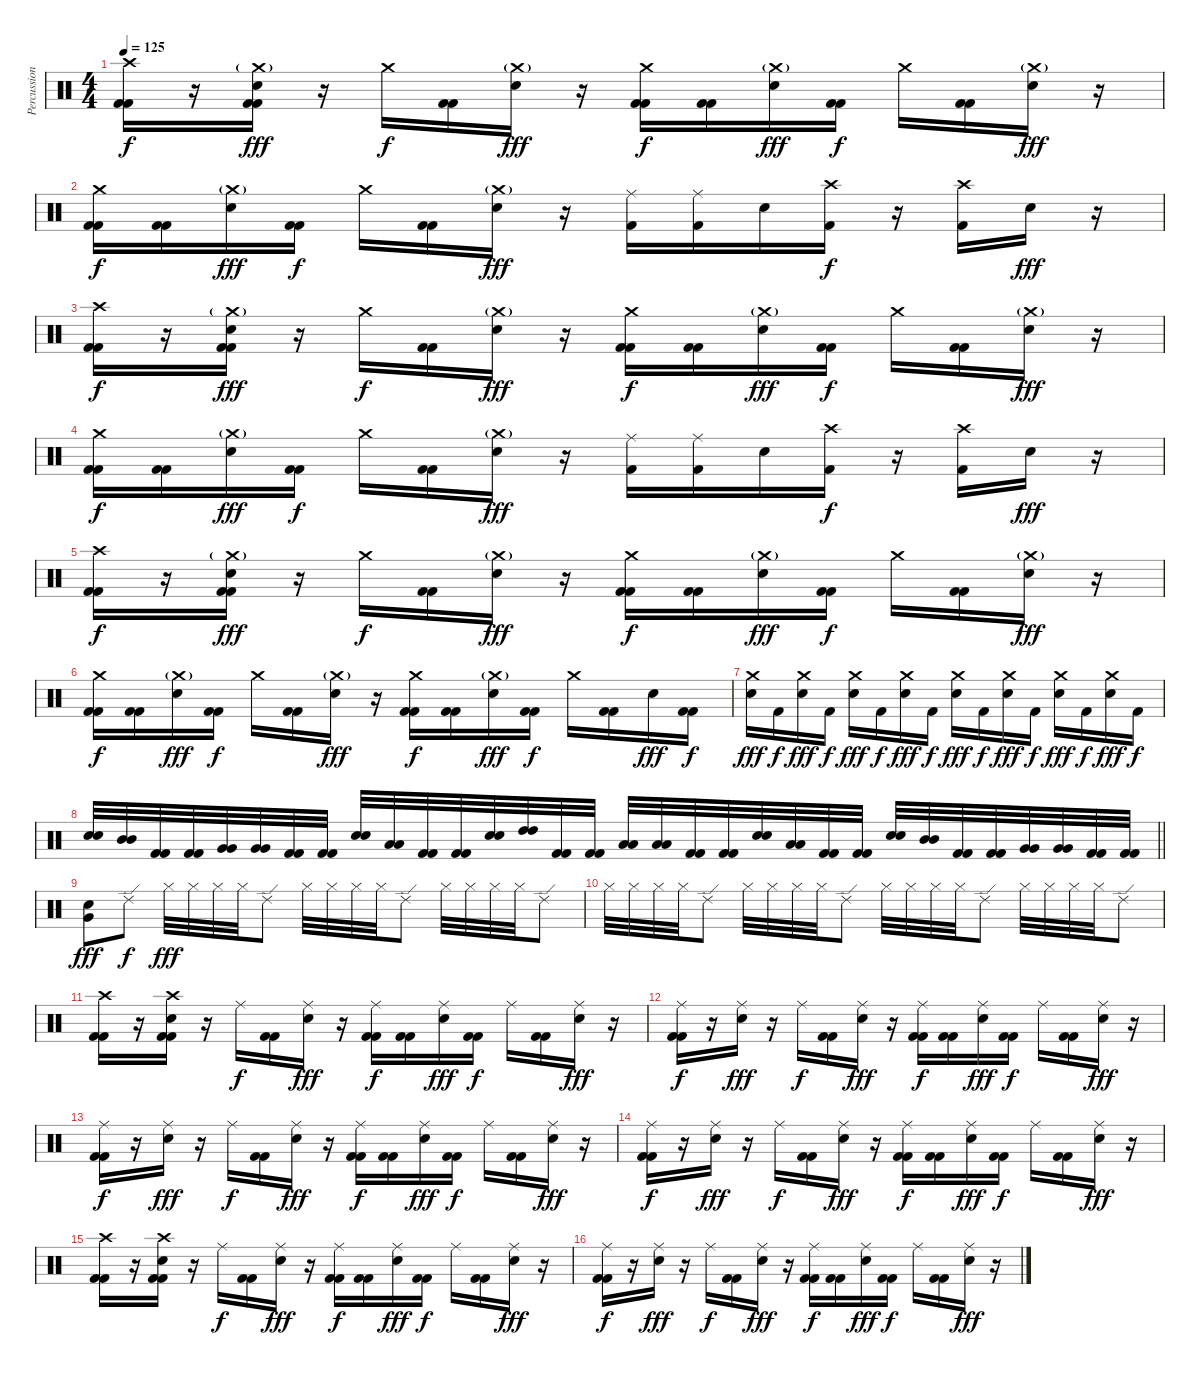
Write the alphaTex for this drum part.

\track ("Percussion" "Percussion") {solo instrument percussion}
\staff {score}
\articulation defaults
\ts (4 4)
\tempo 125
\clef neutral
\ks c
("Crash high (hit)" "Kick (hit) 2" "Kick (hit) 2").16{dy f} r.16 ("Crash medium (hit)"{g} "Electric Snare (hit)" "Kick (hit) 2" "Kick (hit) 2").16{dy fff} r.16 "Crash medium (hit)".16{dy f} ("Kick (hit) 2" "Kick (hit) 2").16 ("Crash medium (hit)"{g} "Electric Snare (hit)").16{dy fff} r.16 ("Crash medium (hit)" "Kick (hit) 2" "Kick (hit) 2").16{dy f} ("Kick (hit) 2" "Kick (hit) 2").16 ("Crash medium (hit)"{g} "Electric Snare (hit)").16{dy fff} ("Kick (hit) 2" "Kick (hit) 2").16{dy f} "Crash medium (hit)".16 ("Kick (hit) 2" "Kick (hit) 2").16 ("Crash medium (hit)"{g} "Electric Snare (hit)").16{dy fff} r.16 |
("Crash medium (hit)" "Kick (hit) 2" "Kick (hit) 2").16{dy f} ("Kick (hit) 2" "Kick (hit) 2").16 ("Crash medium (hit)"{g} "Electric Snare (hit)").16{dy fff} ("Kick (hit) 2" "Kick (hit) 2").16{dy f} "Crash medium (hit)".16 ("Kick (hit) 2" "Kick (hit) 2").16 ("Crash medium (hit)"{g} "Electric Snare (hit)").16{dy fff} r.16 ("Ride (middle)" "Kick (hit) 2").16 ("Ride (middle)" "Kick (hit) 2").16 "Electric Snare (hit)".16 ("Crash high (hit)" "Kick (hit) 2").16{dy f} r.16 ("Crash high (hit)" "Kick (hit) 2").16 "Electric Snare (hit)".16{dy fff} r.16 |
("Crash high (hit)" "Kick (hit) 2" "Kick (hit) 2").16{dy f} r.16 ("Crash medium (hit)"{g} "Electric Snare (hit)" "Kick (hit) 2" "Kick (hit) 2").16{dy fff} r.16 "Crash medium (hit)".16{dy f} ("Kick (hit) 2" "Kick (hit) 2").16 ("Crash medium (hit)"{g} "Electric Snare (hit)").16{dy fff} r.16 ("Crash medium (hit)" "Kick (hit) 2" "Kick (hit) 2").16{dy f} ("Kick (hit) 2" "Kick (hit) 2").16 ("Crash medium (hit)"{g} "Electric Snare (hit)").16{dy fff} ("Kick (hit) 2" "Kick (hit) 2").16{dy f} "Crash medium (hit)".16 ("Kick (hit) 2" "Kick (hit) 2").16 ("Crash medium (hit)"{g} "Electric Snare (hit)").16{dy fff} r.16 |
("Crash medium (hit)" "Kick (hit) 2" "Kick (hit) 2").16{dy f} ("Kick (hit) 2" "Kick (hit) 2").16 ("Crash medium (hit)"{g} "Electric Snare (hit)").16{dy fff} ("Kick (hit) 2" "Kick (hit) 2").16{dy f} "Crash medium (hit)".16 ("Kick (hit) 2" "Kick (hit) 2").16 ("Crash medium (hit)"{g} "Electric Snare (hit)").16{dy fff} r.16 ("Ride (middle)" "Kick (hit) 2").16 ("Ride (middle)" "Kick (hit) 2").16 "Electric Snare (hit)".16 ("Crash high (hit)" "Kick (hit) 2").16{dy f} r.16 ("Crash high (hit)" "Kick (hit) 2").16 "Electric Snare (hit)".16{dy fff} r.16 |
("Crash high (hit)" "Kick (hit) 2" "Kick (hit) 2").16{dy f} r.16 ("Crash medium (hit)"{g} "Electric Snare (hit)" "Kick (hit) 2" "Kick (hit) 2").16{dy fff} r.16 "Crash medium (hit)".16{dy f} ("Kick (hit) 2" "Kick (hit) 2").16 ("Crash medium (hit)"{g} "Electric Snare (hit)").16{dy fff} r.16 ("Crash medium (hit)" "Kick (hit) 2" "Kick (hit) 2").16{dy f} ("Kick (hit) 2" "Kick (hit) 2").16 ("Crash medium (hit)"{g} "Electric Snare (hit)").16{dy fff} ("Kick (hit) 2" "Kick (hit) 2").16{dy f} "Crash medium (hit)".16 ("Kick (hit) 2" "Kick (hit) 2").16 ("Crash medium (hit)"{g} "Electric Snare (hit)").16{dy fff} r.16 |
("Crash medium (hit)" "Kick (hit) 2" "Kick (hit) 2").16{dy f} ("Kick (hit) 2" "Kick (hit) 2").16 ("Crash medium (hit)"{g} "Electric Snare (hit)").16{dy fff} ("Kick (hit) 2" "Kick (hit) 2").16{dy f} "Crash medium (hit)".16 ("Kick (hit) 2" "Kick (hit) 2").16 ("Crash medium (hit)"{g} "Electric Snare (hit)").16{dy fff} r.16 ("Crash medium (hit)" "Kick (hit) 2" "Kick (hit) 2").16{dy f} ("Kick (hit) 2" "Kick (hit) 2").16 ("Crash medium (hit)"{g} "Electric Snare (hit)").16{dy fff} ("Kick (hit) 2" "Kick (hit) 2").16{dy f} "Crash medium (hit)".16 ("Kick (hit) 2" "Kick (hit) 2").16 "Electric Snare (hit)".16{dy fff} ("Kick (hit) 2" "Kick (hit) 2").16{dy f} |
("Crash medium (hit)" "Electric Snare (hit)").16{dy fff} "Kick (hit) 2".16{dy f} ("Crash medium (hit)" "Electric Snare (hit)").16{dy fff} "Kick (hit) 2".16{dy f} ("Crash medium (hit)" "Electric Snare (hit)").16{dy fff} "Kick (hit) 2".16{dy f} ("Crash medium (hit)" "Electric Snare (hit)").16{dy fff} "Kick (hit) 2".16{dy f} ("Crash medium (hit)" "Electric Snare (hit)").16{dy fff} "Kick (hit) 2".16{dy f} ("Crash medium (hit)" "Electric Snare (hit)").16{dy fff} "Kick (hit) 2".16{dy f} ("Crash medium (hit)" "Electric Snare (hit)").16{dy fff} "Kick (hit) 2".16{dy f} ("Crash medium (hit)" "Electric Snare (hit)").16{dy fff} "Kick (hit) 2".16{dy f} |
\barLineRight lightlight
("Electric Snare (hit)" "Electric Snare (hit)").32 ("Mid Tom (hit)" "Mid Tom (hit)").32 ("Kick (hit) 2" "Kick (hit) 2").32 ("Kick (hit) 2" "Kick (hit) 2").32 ("Very Low Tom (hit)" "Very Low Tom (hit)").32 ("Very Low Tom (hit)" "Very Low Tom (hit)").32 ("Kick (hit) 2" "Kick (hit) 2").32 ("Kick (hit) 2" "Kick (hit) 2").32 ("Electric Snare (hit)" "Electric Snare (hit)").32 ("Low Tom (hit)" "Low Tom (hit)").32 ("Kick (hit) 2" "Kick (hit) 2").32 ("Kick (hit) 2" "Kick (hit) 2").32 ("Electric Snare (hit)" "Electric Snare (hit)").32 ("High Tom (hit)" "High Tom (hit)").32 ("Kick (hit) 2" "Kick (hit) 2").32 ("Kick (hit) 2" "Kick (hit) 2").32 ("Low Floor Tom (hit)" "Low Floor Tom (hit)").32 ("Low Floor Tom (hit)" "Low Floor Tom (hit)").32 ("Kick (hit) 2" "Kick (hit) 2").32 ("Kick (hit) 2" "Kick (hit) 2").32 ("Electric Snare (hit)" "Electric Snare (hit)").32 ("Low Tom (hit)" "Low Tom (hit)").32 ("Kick (hit) 2" "Kick (hit) 2").32 ("Kick (hit) 2" "Kick (hit) 2").32 ("Electric Snare (hit)" "Electric Snare (hit)").32 ("Mid Tom (hit)" "Mid Tom (hit)").32 ("Kick (hit) 2" "Kick (hit) 2").32 ("Kick (hit) 2" "Kick (hit) 2").32 ("Very Low Tom (hit)" "Very Low Tom (hit)").32 ("Very Low Tom (hit)" "Very Low Tom (hit)").32 ("Kick (hit) 2" "Kick (hit) 2").32 ("Kick (hit) 2" "Kick (hit) 2").32 |
("Electric Snare (hit)" "Very Low Tom (hit)").8{dy fff} "Ride (edge) 2".8{dy f} "Hi-Hat (closed)".32{dy fff} "Hi-Hat (closed)".32 "Hi-Hat (closed)".32 "Hi-Hat (closed)".32 "Ride (edge) 2".8 "Hi-Hat (closed)".32 "Hi-Hat (closed)".32 "Hi-Hat (closed)".32 "Hi-Hat (closed)".32 "Ride (edge) 2".8 "Hi-Hat (closed)".32 "Hi-Hat (closed)".32 "Hi-Hat (closed)".32 "Hi-Hat (closed)".32 "Ride (edge) 2".8 |
"Hi-Hat (closed)".32 "Hi-Hat (closed)".32 "Hi-Hat (closed)".32 "Hi-Hat (closed)".32 "Ride (edge) 2".8 "Hi-Hat (closed)".32 "Hi-Hat (closed)".32 "Hi-Hat (closed)".32 "Hi-Hat (closed)".32 "Ride (edge) 2".8 "Hi-Hat (closed)".32 "Hi-Hat (closed)".32 "Hi-Hat (closed)".32 "Hi-Hat (closed)".32 "Ride (edge) 2".8 "Hi-Hat (closed)".32 "Hi-Hat (closed)".32 "Hi-Hat (closed)".32 "Hi-Hat (closed)".32 "Ride (edge) 2".8 |
("Crash high (hit)" "Kick (hit) 2" "Kick (hit) 2").16 r.16 ("Crash high (hit)" "Electric Snare (hit)" "Kick (hit) 2" "Kick (hit) 2").16 r.16 "Ride (middle)".16{dy f} ("Kick (hit) 2" "Kick (hit) 2").16 ("Ride (middle)" "Electric Snare (hit)").16{dy fff} r.16 ("Ride (middle)" "Kick (hit) 2" "Kick (hit) 2").16{dy f} ("Kick (hit) 2" "Kick (hit) 2").16 ("Ride (middle)" "Electric Snare (hit)").16{dy fff} ("Kick (hit) 2" "Kick (hit) 2").16{dy f} "Ride (middle)".16 ("Kick (hit) 2" "Kick (hit) 2").16 ("Ride (middle)" "Electric Snare (hit)").16{dy fff} r.16 |
("Ride (middle)" "Kick (hit) 2" "Kick (hit) 2").16{dy f} r.16 ("Ride (middle)" "Electric Snare (hit)").16{dy fff} r.16 "Ride (middle)".16{dy f} ("Kick (hit) 2" "Kick (hit) 2").16 ("Ride (middle)" "Electric Snare (hit)").16{dy fff} r.16 ("Ride (middle)" "Kick (hit) 2" "Kick (hit) 2").16{dy f} ("Kick (hit) 2" "Kick (hit) 2").16 ("Ride (middle)" "Electric Snare (hit)").16{dy fff} ("Kick (hit) 2" "Kick (hit) 2").16{dy f} "Ride (middle)".16 ("Kick (hit) 2" "Kick (hit) 2").16 ("Ride (middle)" "Electric Snare (hit)").16{dy fff} r.16 |
("Ride (middle)" "Kick (hit) 2" "Kick (hit) 2").16{dy f} r.16 ("Ride (middle)" "Electric Snare (hit)").16{dy fff} r.16 "Ride (middle)".16{dy f} ("Kick (hit) 2" "Kick (hit) 2").16 ("Ride (middle)" "Electric Snare (hit)").16{dy fff} r.16 ("Ride (middle)" "Kick (hit) 2" "Kick (hit) 2").16{dy f} ("Kick (hit) 2" "Kick (hit) 2").16 ("Ride (middle)" "Electric Snare (hit)").16{dy fff} ("Kick (hit) 2" "Kick (hit) 2").16{dy f} "Ride (middle)".16 ("Kick (hit) 2" "Kick (hit) 2").16 ("Ride (middle)" "Electric Snare (hit)").16{dy fff} r.16 |
("Ride (middle)" "Kick (hit) 2" "Kick (hit) 2").16{dy f} r.16 ("Ride (middle)" "Electric Snare (hit)").16{dy fff} r.16 "Ride (middle)".16{dy f} ("Kick (hit) 2" "Kick (hit) 2").16 ("Ride (middle)" "Electric Snare (hit)").16{dy fff} r.16 ("Ride (middle)" "Kick (hit) 2" "Kick (hit) 2").16{dy f} ("Kick (hit) 2" "Kick (hit) 2").16 ("Ride (middle)" "Electric Snare (hit)").16{dy fff} ("Kick (hit) 2" "Kick (hit) 2").16{dy f} "Ride (middle)".16 ("Kick (hit) 2" "Kick (hit) 2").16 ("Ride (middle)" "Electric Snare (hit)").16{dy fff} r.16 |
("Crash high (hit)" "Kick (hit) 2" "Kick (hit) 2").16 r.16 ("Crash high (hit)" "Electric Snare (hit)" "Kick (hit) 2" "Kick (hit) 2").16 r.16 "Ride (middle)".16{dy f} ("Kick (hit) 2" "Kick (hit) 2").16 ("Ride (middle)" "Electric Snare (hit)").16{dy fff} r.16 ("Ride (middle)" "Kick (hit) 2" "Kick (hit) 2").16{dy f} ("Kick (hit) 2" "Kick (hit) 2").16 ("Ride (middle)" "Electric Snare (hit)").16{dy fff} ("Kick (hit) 2" "Kick (hit) 2").16{dy f} "Ride (middle)".16 ("Kick (hit) 2" "Kick (hit) 2").16 ("Ride (middle)" "Electric Snare (hit)").16{dy fff} r.16 |
("Ride (middle)" "Kick (hit) 2" "Kick (hit) 2").16{dy f} r.16 ("Ride (middle)" "Electric Snare (hit)").16{dy fff} r.16 "Ride (middle)".16{dy f} ("Kick (hit) 2" "Kick (hit) 2").16 ("Ride (middle)" "Electric Snare (hit)").16{dy fff} r.16 ("Ride (middle)" "Kick (hit) 2" "Kick (hit) 2").16{dy f} ("Kick (hit) 2" "Kick (hit) 2").16 ("Ride (middle)" "Electric Snare (hit)").16{dy fff} ("Kick (hit) 2" "Kick (hit) 2").16{dy f} "Ride (middle)".16 ("Kick (hit) 2" "Kick (hit) 2").16 ("Ride (middle)" "Electric Snare (hit)").16{dy fff} r.16
